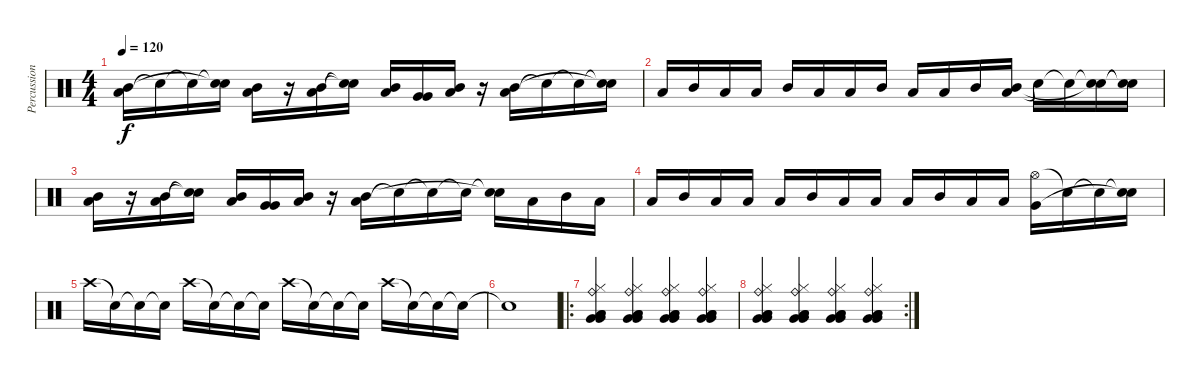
\track ("Percussion" "Percussion") {instrument percussion}
\staff {score}
\articulation defaults
\ts (4 4)
\tempo 120
\clef neutral
\ks c
("Low Tom (hit)" "Mid Tom (hit)").16{dy f} "Snare (hit)"{t}.16 "Snare (hit)"{t}.16 ("Snare (hit)"{t} "Snare (hit)"{t}).16 ("Low Tom (hit)" "Mid Tom (hit)").16 r.16 ("Low Tom (hit)" "Mid Tom (hit)").16 ("Snare (hit)"{t} "Snare (hit)"{t}).16 ("Low Tom (hit)" "Mid Tom (hit)").16 ("Very Low Tom (hit)" "Very Low Tom (hit)").16 ("Low Tom (hit)" "Mid Tom (hit)").16 r.16 ("Low Tom (hit)" "Mid Tom (hit)").16 "Snare (hit)"{t}.16 "Snare (hit)"{t}.16 ("Snare (hit)"{t} "Snare (hit)"{t}).16 |
"Low Tom (hit)".16 "Mid Tom (hit)".16 "Low Tom (hit)".16 "Low Tom (hit)".16 "Mid Tom (hit)".16 "Low Tom (hit)".16 "Low Tom (hit)".16 "Mid Tom (hit)".16 "Low Tom (hit)".16 "Low Tom (hit)".16 "Mid Tom (hit)".16 ("Low Tom (hit)" "Mid Tom (hit)").16 "Snare (hit)"{t}.16 "Snare (hit)"{t}.16 ("Snare (hit)"{t} "Snare (hit)"{t}).16 ("Snare (hit)"{t} "Snare (hit)"{t}).16 |
("Mid Tom (hit)" "Low Tom (hit)").16 r.16 ("Low Tom (hit)" "Mid Tom (hit)").16 ("Snare (hit)"{t} "Snare (hit)"{t}).16 ("Low Tom (hit)" "Mid Tom (hit)").16 ("Very Low Tom (hit)" "Very Low Tom (hit)").16 ("Low Tom (hit)" "Mid Tom (hit)").16 r.16 ("Low Tom (hit)" "Mid Tom (hit)").16 "Snare (hit)"{t}.16 "Snare (hit)"{t}.16 "Snare (hit)"{t}.16 ("Snare (hit)"{t} "Snare (hit)"{t}).16 "Low Tom (hit)".16 "Mid Tom (hit)".16 "Low Tom (hit)".16 |
"Low Tom (hit)".16 "Mid Tom (hit)".16 "Low Tom (hit)".16 "Low Tom (hit)".16 "Low Tom (hit)".16 "Mid Tom (hit)".16 "Low Tom (hit)".16 "Low Tom (hit)".16 "Low Tom (hit)".16 "Mid Tom (hit)".16 "Low Tom (hit)".16 "Low Tom (hit)".16 ("Hi-Hat (open)" "Very Low Tom (hit)").16 "Snare (hit)"{t}.16 "Snare (hit)"{t}.16 ("Snare (hit)"{t} "Snare (hit)"{t}).16 |
"Crash high (hit)".16 "Snare (hit)"{t}.16 "Snare (hit)"{t}.16 "Snare (hit)"{t}.16 "Crash high (hit)".16 "Snare (hit)"{t}.16 "Snare (hit)"{t}.16 "Snare (hit)"{t}.16 "Crash high (hit)".16 "Snare (hit)"{t}.16 "Snare (hit)"{t}.16 "Snare (hit)"{t}.16 "Crash high (hit)".16 "Snare (hit)"{t}.16 "Snare (hit)"{t}.16 "Snare (hit)"{t}.16 |
"Snare (hit)"{t}.1 |
\ro
("Ride (bell)" "Very Low Tom (hit)" "Hi-Hat (closed)" "Low Tom (hit)" "Very Low Tom (hit)" "Low Floor Tom (hit)").4 ("Ride (bell)" "Very Low Tom (hit)" "Hi-Hat (closed)" "Low Tom (hit)" "Very Low Tom (hit)" "Low Floor Tom (hit)").4 ("Ride (bell)" "Very Low Tom (hit)" "Hi-Hat (closed)" "Low Tom (hit)" "Very Low Tom (hit)" "Low Floor Tom (hit)").4 ("Ride (bell)" "Very Low Tom (hit)" "Hi-Hat (closed)" "Low Tom (hit)" "Very Low Tom (hit)" "Low Floor Tom (hit)").4 |
\rc 2
("Ride (bell)" "Very Low Tom (hit)" "Hi-Hat (closed)" "Low Tom (hit)" "Very Low Tom (hit)" "Low Floor Tom (hit)").4 ("Ride (bell)" "Very Low Tom (hit)" "Hi-Hat (closed)" "Low Tom (hit)" "Very Low Tom (hit)" "Low Floor Tom (hit)").4 ("Ride (bell)" "Very Low Tom (hit)" "Hi-Hat (closed)" "Low Tom (hit)" "Very Low Tom (hit)" "Low Floor Tom (hit)").4 ("Ride (bell)" "Very Low Tom (hit)" "Hi-Hat (closed)" "Low Tom (hit)" "Very Low Tom (hit)" "Low Floor Tom (hit)").4
